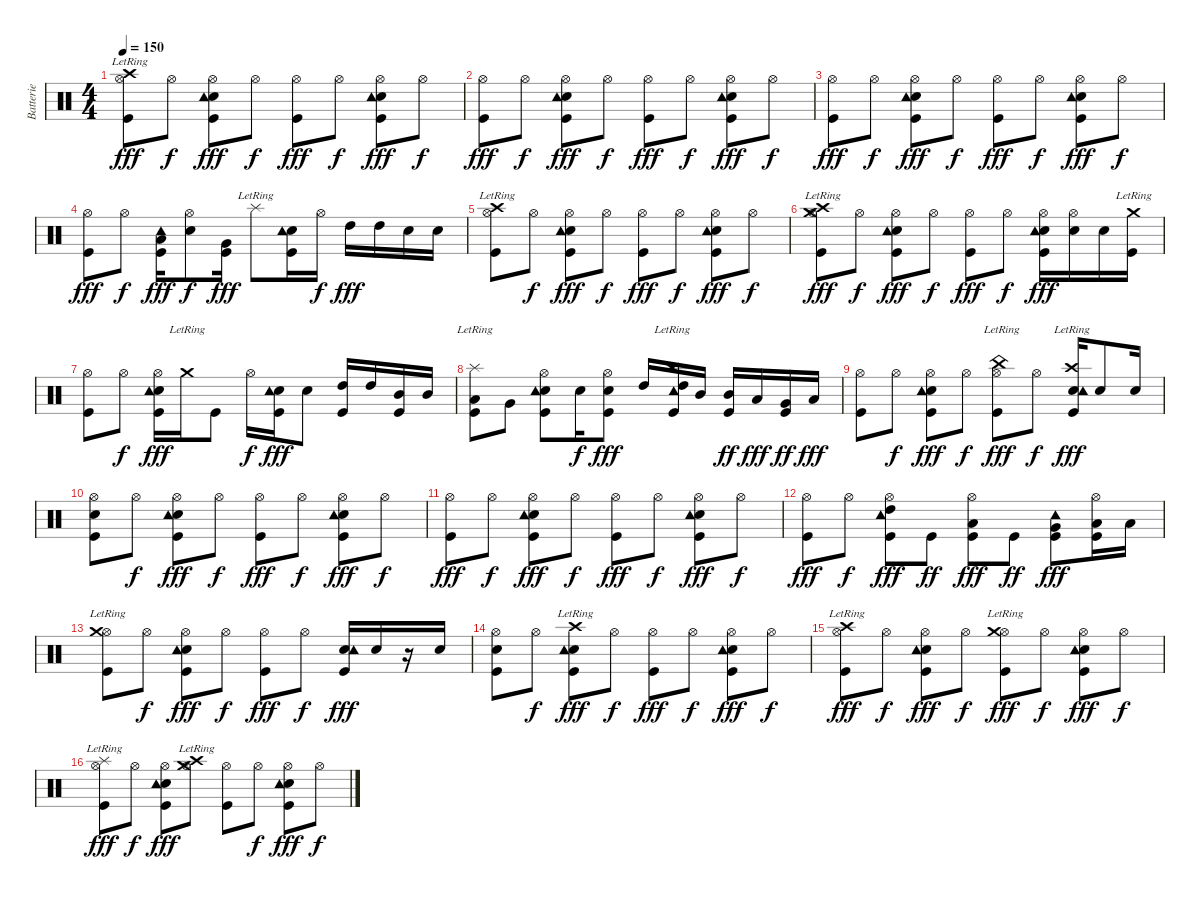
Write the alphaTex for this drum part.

\track ("Batterie" "Batterie") {instrument percussion}
\staff {score}
\articulation defaults
\ts (4 4)
\tempo 150
\clef neutral
\ks c
("Hi-Hat (open)" "Kick (hit)" "Crash high (hit)"{lr}).8{dy fff} "Hi-Hat (open)".8{dy f} ("Hi-Hat (open)" "Kick (hit)" "Electric Snare (hit)" "Tambourine (hit)").8{dy fff} "Hi-Hat (open)".8{dy f} ("Hi-Hat (open)" "Kick (hit)").8{dy fff} "Hi-Hat (open)".8{dy f} ("Hi-Hat (open)" "Kick (hit)" "Electric Snare (hit)" "Tambourine (hit)").8{dy fff} "Hi-Hat (open)".8{dy f} |
("Hi-Hat (open)" "Kick (hit)").8{dy fff} "Hi-Hat (open)".8{dy f} ("Hi-Hat (open)" "Kick (hit)" "Electric Snare (hit)" "Tambourine (hit)").8{dy fff} "Hi-Hat (open)".8{dy f} ("Hi-Hat (open)" "Kick (hit)").8{dy fff} "Hi-Hat (open)".8{dy f} ("Hi-Hat (open)" "Kick (hit)" "Electric Snare (hit)" "Tambourine (hit)").8{dy fff} "Hi-Hat (open)".8{dy f} |
("Hi-Hat (open)" "Kick (hit)").8{dy fff} "Hi-Hat (open)".8{dy f} ("Hi-Hat (open)" "Kick (hit)" "Electric Snare (hit)" "Tambourine (hit)").8{dy fff} "Hi-Hat (open)".8{dy f} ("Hi-Hat (open)" "Kick (hit)").8{dy fff} "Hi-Hat (open)".8{dy f} ("Hi-Hat (open)" "Kick (hit)" "Electric Snare (hit)" "Tambourine (hit)").8{dy fff} "Hi-Hat (open)".8{dy f} |
("Hi-Hat (open)" "Kick (hit)").8{dy fff} "Hi-Hat (open)".8{dy f} ("Kick (hit)" "Low Tom (hit)" "Tambourine (hit)").16{dy fff} ("Hi-Hat (open)" "Electric Snare (hit)").8{dy f} ("Kick (hit)" "Very Low Tom (hit)").16{dy fff} "Splash (hit)"{lr}.8 ("Kick (hit)" "Electric Snare (hit)" "Tambourine (hit)").16 "Hi-Hat (open)".16{dy f} "High Tom (hit)".16{dy fff} "High Tom (hit)".16 "Electric Snare (hit)".16 "Electric Snare (hit)".16 |
("Hi-Hat (open)" "Kick (hit)" "Crash high (hit)"{lr}).8 "Hi-Hat (open)".8{dy f} ("Hi-Hat (open)" "Kick (hit)" "Electric Snare (hit)" "Tambourine (hit)").8{dy fff} "Hi-Hat (open)".8{dy f} ("Hi-Hat (open)" "Kick (hit)").8{dy fff} "Hi-Hat (open)".8{dy f} ("Hi-Hat (open)" "Kick (hit)" "Electric Snare (hit)" "Tambourine (hit)").8{dy fff} "Hi-Hat (open)".8{dy f} |
("Hi-Hat (open)" "Kick (hit)" "Crash high (hit)"{lr} "Crash medium (hit)"{lr}).8{dy fff} "Hi-Hat (open)".8{dy f} ("Hi-Hat (open)" "Kick (hit)" "Electric Snare (hit)" "Tambourine (hit)").8{dy fff} "Hi-Hat (open)".8{dy f} ("Hi-Hat (open)" "Kick (hit)").8{dy fff} "Hi-Hat (open)".8{dy f} ("Hi-Hat (open)" "Kick (hit)" "Electric Snare (hit)" "Tambourine (hit)").16{dy fff} ("Hi-Hat (open)" "Electric Snare (hit)").16 "Electric Snare (hit)".16 ("Kick (hit)" "Crash medium (hit)"{lr}).16 |
("Hi-Hat (open)" "Kick (hit)").8 "Hi-Hat (open)".8{dy f} ("Hi-Hat (open)" "Kick (hit)" "Electric Snare (hit)" "Tambourine (hit)").16{dy fff} "Crash medium (hit)"{lr}.16 "Kick (hit)".8 "Hi-Hat (open)".16{dy f} ("Kick (hit)" "Electric Snare (hit)" "Tambourine (hit)").16{dy fff} "Electric Snare (hit)".8 ("High Tom (hit)" "Kick (hit)").16 "High Tom (hit)".16 ("Mid Tom (hit)" "Kick (hit)").16 "Mid Tom (hit)".16 |
("Splash (hit)"{lr} "Kick (hit)" "Low Tom (hit)").8 "Very Low Tom (hit)".8 ("Hi-Hat (open)" "Kick (hit)" "Electric Snare (hit)" "Tambourine (hit)").8 "Electric Snare (hit)".16{dy f} ("Hi-Hat (open)" "Kick (hit)" "Electric Snare (hit)").8{dy fff} "High Tom (hit)".16 ("Crash high (hit)"{lr} "Kick (hit)" "High Tom (hit)" "Tambourine (hit)").16 "Mid Tom (hit)".16 ("Mid Tom (hit)" "Kick (hit)").16{dy ff} "Low Tom (hit)".16{dy fff} ("Very Low Tom (hit)" "Kick (hit)").16{dy ff} "Low Floor Tom (hit)".16{dy fff} |
("Hi-Hat (open)" "Kick (hit)").8 "Hi-Hat (open)".8{dy f} ("Hi-Hat (open)" "Kick (hit)" "Electric Snare (hit)" "Tambourine (hit)").8{dy fff} "Hi-Hat (open)".8{dy f} ("Hi-Hat (open)" "Kick (hit)" "China (hit)"{lr}).8{dy fff} "Hi-Hat (open)".8{dy f} ("Kick (hit)" "Electric Snare (hit)" "Tambourine (hit)" "Crash high (hit)"{lr}).16{dy fff} "Electric Snare (hit)".8 "Electric Snare (hit)".16 |
("Hi-Hat (open)" "Kick (hit)" "Electric Snare (hit)").8 "Hi-Hat (open)".8{dy f} ("Hi-Hat (open)" "Kick (hit)" "Electric Snare (hit)" "Tambourine (hit)").8{dy fff} "Hi-Hat (open)".8{dy f} ("Hi-Hat (open)" "Kick (hit)").8{dy fff} "Hi-Hat (open)".8{dy f} ("Hi-Hat (open)" "Kick (hit)" "Electric Snare (hit)" "Tambourine (hit)").8{dy fff} "Hi-Hat (open)".8{dy f} |
("Hi-Hat (open)" "Kick (hit)").8{dy fff} "Hi-Hat (open)".8{dy f} ("Hi-Hat (open)" "Kick (hit)" "Electric Snare (hit)" "Tambourine (hit)").8{dy fff} "Hi-Hat (open)".8{dy f} ("Hi-Hat (open)" "Kick (hit)").8{dy fff} "Hi-Hat (open)".8{dy f} ("Hi-Hat (open)" "Kick (hit)" "Electric Snare (hit)" "Tambourine (hit)").8{dy fff} "Hi-Hat (open)".8{dy f} |
("Hi-Hat (open)" "Kick (hit)").8{dy fff} "Hi-Hat (open)".8{dy f} ("Hi-Hat (open)" "Kick (hit)" "High Tom (hit)" "Tambourine (hit)").8{dy fff} "Kick (hit)".8{dy ff} ("Hi-Hat (open)" "Kick (hit)" "Low Tom (hit)").8{dy fff} "Kick (hit)".8{dy ff} ("Kick (hit)" "Very Low Tom (hit)" "Tambourine (hit)").8{dy fff} ("Hi-Hat (open)" "Kick (hit)" "Low Floor Tom (hit)").16 "Low Floor Tom (hit)".16 |
("Hi-Hat (open)" "Kick (hit)" "Crash medium (hit)"{lr}).8 "Hi-Hat (open)".8{dy f} ("Hi-Hat (open)" "Kick (hit)" "Electric Snare (hit)" "Tambourine (hit)").8{dy fff} "Hi-Hat (open)".8{dy f} ("Hi-Hat (open)" "Kick (hit)").8{dy fff} "Hi-Hat (open)".8{dy f} ("Kick (hit)" "Electric Snare (hit)" "Tambourine (hit)").16{dy fff} "Electric Snare (hit)".16 r.16 "Electric Snare (hit)".16 |
("Hi-Hat (open)" "Kick (hit)" "Electric Snare (hit)").8 "Hi-Hat (open)".8{dy f} ("Kick (hit)" "Electric Snare (hit)" "Tambourine (hit)" "Crash high (hit)"{lr}).8{dy fff} "Hi-Hat (open)".8{dy f} ("Hi-Hat (open)" "Kick (hit)").8{dy fff} "Hi-Hat (open)".8{dy f} ("Hi-Hat (open)" "Kick (hit)" "Electric Snare (hit)" "Tambourine (hit)").8{dy fff} "Hi-Hat (open)".8{dy f} |
("Hi-Hat (open)" "Kick (hit)" "Crash high (hit)"{lr}).8{dy fff} "Hi-Hat (open)".8{dy f} ("Hi-Hat (open)" "Kick (hit)" "Electric Snare (hit)" "Tambourine (hit)").8{dy fff} "Hi-Hat (open)".8{dy f} ("Hi-Hat (open)" "Kick (hit)" "Crash medium (hit)"{lr}).8{dy fff} "Hi-Hat (open)".8{dy f} ("Hi-Hat (open)" "Kick (hit)" "Electric Snare (hit)" "Tambourine (hit)").8{dy fff} "Hi-Hat (open)".8{dy f} |
("Hi-Hat (open)" "Kick (hit)" "Splash (hit)"{lr}).8{dy fff} "Hi-Hat (open)".8{dy f} ("Hi-Hat (open)" "Kick (hit)" "Electric Snare (hit)" "Tambourine (hit)").8{dy fff} ("Hi-Hat (open)" "Crash medium (hit)"{lr} "Crash high (hit)"{lr}).8 ("Hi-Hat (open)" "Kick (hit)").8 "Hi-Hat (open)".8{dy f} ("Hi-Hat (open)" "Kick (hit)" "Electric Snare (hit)" "Tambourine (hit)").8{dy fff} "Hi-Hat (open)".8{dy f}
